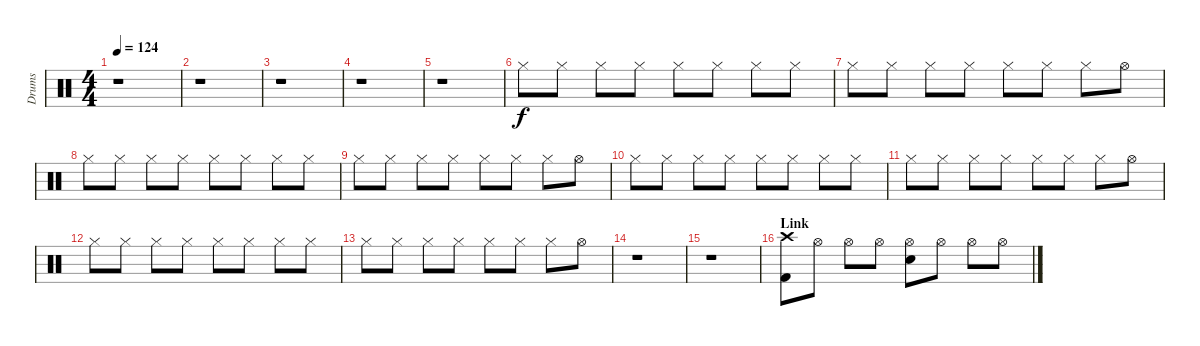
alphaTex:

\track ("Drums" "Drums") {instrument percussion}
\staff {score}
\articulation defaults
\ts (4 4)
\tempo 124
\clef neutral
\ks c
r.1{dy f} |
r.1 |
r.1 |
r.1 |
r.1 |
"Hi-Hat (closed)".8 "Hi-Hat (closed)".8 "Hi-Hat (closed)".8 "Hi-Hat (closed)".8 "Hi-Hat (closed)".8 "Hi-Hat (closed)".8 "Hi-Hat (closed)".8 "Hi-Hat (closed)".8 |
"Hi-Hat (closed)".8 "Hi-Hat (closed)".8 "Hi-Hat (closed)".8 "Hi-Hat (closed)".8 "Hi-Hat (closed)".8 "Hi-Hat (closed)".8 "Hi-Hat (closed)".8 "Hi-Hat (open)".8 |
"Hi-Hat (closed)".8 "Hi-Hat (closed)".8 "Hi-Hat (closed)".8 "Hi-Hat (closed)".8 "Hi-Hat (closed)".8 "Hi-Hat (closed)".8 "Hi-Hat (closed)".8 "Hi-Hat (closed)".8 |
"Hi-Hat (closed)".8 "Hi-Hat (closed)".8 "Hi-Hat (closed)".8 "Hi-Hat (closed)".8 "Hi-Hat (closed)".8 "Hi-Hat (closed)".8 "Hi-Hat (closed)".8 "Hi-Hat (open)".8 |
"Hi-Hat (closed)".8 "Hi-Hat (closed)".8 "Hi-Hat (closed)".8 "Hi-Hat (closed)".8 "Hi-Hat (closed)".8 "Hi-Hat (closed)".8 "Hi-Hat (closed)".8 "Hi-Hat (closed)".8 |
"Hi-Hat (closed)".8 "Hi-Hat (closed)".8 "Hi-Hat (closed)".8 "Hi-Hat (closed)".8 "Hi-Hat (closed)".8 "Hi-Hat (closed)".8 "Hi-Hat (closed)".8 "Hi-Hat (open)".8 |
"Hi-Hat (closed)".8 "Hi-Hat (closed)".8 "Hi-Hat (closed)".8 "Hi-Hat (closed)".8 "Hi-Hat (closed)".8 "Hi-Hat (closed)".8 "Hi-Hat (closed)".8 "Hi-Hat (closed)".8 |
"Hi-Hat (closed)".8 "Hi-Hat (closed)".8 "Hi-Hat (closed)".8 "Hi-Hat (closed)".8 "Hi-Hat (closed)".8 "Hi-Hat (closed)".8 "Hi-Hat (closed)".8 "Hi-Hat (open)".8 |
\section ("" "")
r.1 |
r.1 |
\section ("" "Link")
("Crash high (hit)" "Kick (hit) 2").8 "Hi-Hat (open)".8 "Hi-Hat (open)".8 "Hi-Hat (open)".8 ("Hi-Hat (open)" "Electric Snare (hit)").8 "Hi-Hat (open)".8 "Hi-Hat (open)".8 "Hi-Hat (open)".8
